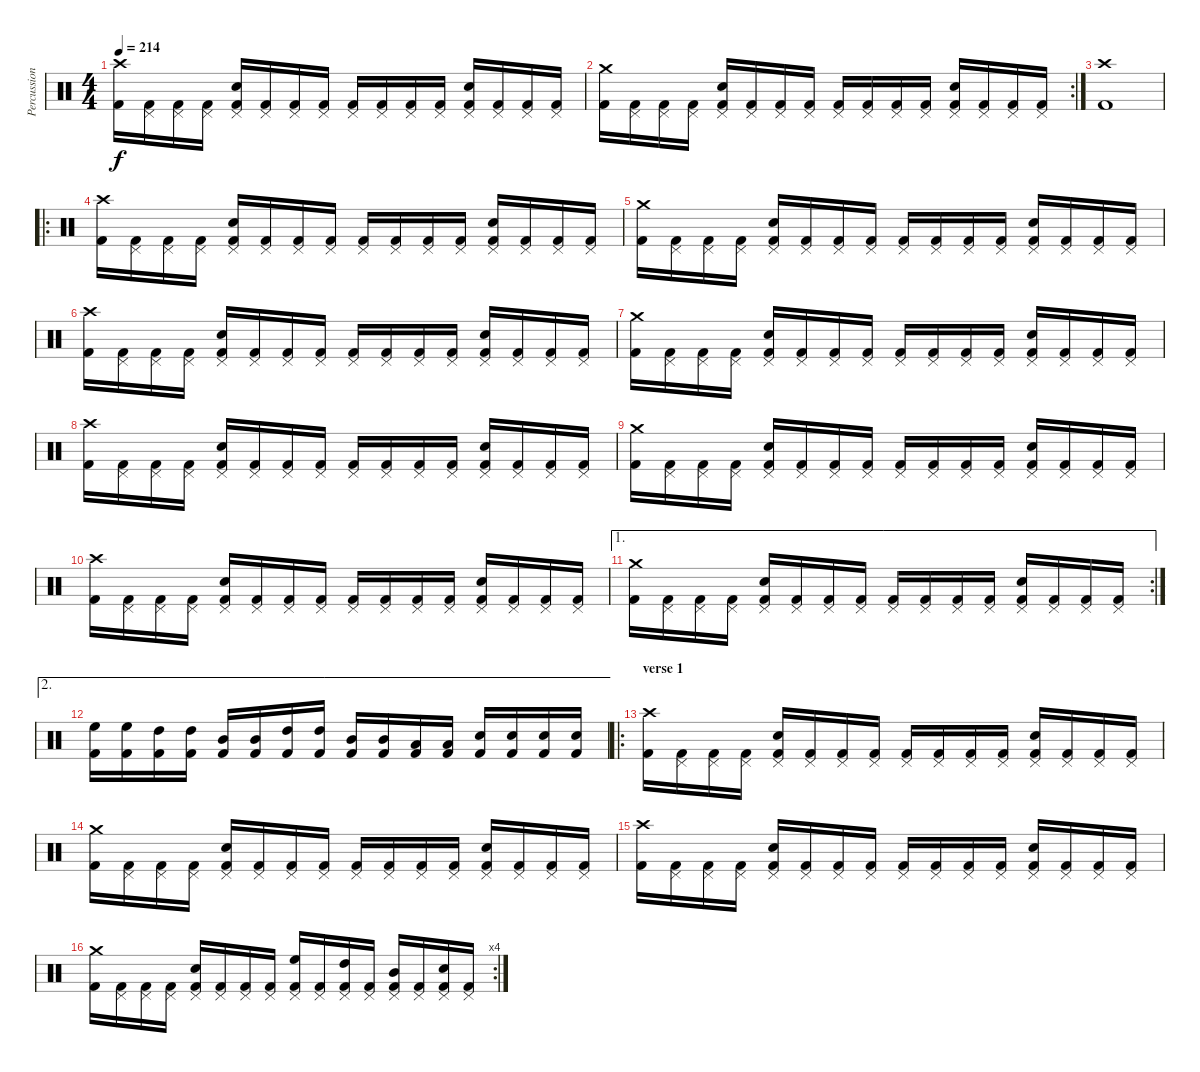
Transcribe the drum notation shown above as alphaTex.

\track ("Percussion" "Percussion") {instrument percussion}
\staff {score}
\articulation defaults
\ts (4 4)
\tempo 214
\clef neutral
\ks c
("Crash high (hit)" "Kick (hit) 2").16{dy f} ("Pedal Hi-Hat (hit)" "Kick (hit) 2").16 ("Pedal Hi-Hat (hit)" "Kick (hit) 2").16 ("Pedal Hi-Hat (hit)" "Kick (hit) 2").16 ("Pedal Hi-Hat (hit)" "Snare (hit) 2" "Kick (hit) 2").16 ("Pedal Hi-Hat (hit)" "Kick (hit) 2").16 ("Pedal Hi-Hat (hit)" "Kick (hit) 2").16 ("Pedal Hi-Hat (hit)" "Kick (hit) 2").16 ("Pedal Hi-Hat (hit)" "Kick (hit) 2").16 ("Pedal Hi-Hat (hit)" "Kick (hit) 2").16 ("Pedal Hi-Hat (hit)" "Kick (hit) 2").16 ("Pedal Hi-Hat (hit)" "Kick (hit) 2").16 ("Pedal Hi-Hat (hit)" "Snare (hit) 2" "Kick (hit) 2").16 ("Pedal Hi-Hat (hit)" "Kick (hit) 2").16 ("Pedal Hi-Hat (hit)" "Kick (hit) 2").16 ("Pedal Hi-Hat (hit)" "Kick (hit) 2").16 |
\rc 2
("Crash medium (hit)" "Kick (hit) 2").16 ("Pedal Hi-Hat (hit)" "Kick (hit) 2").16 ("Pedal Hi-Hat (hit)" "Kick (hit) 2").16 ("Pedal Hi-Hat (hit)" "Kick (hit) 2").16 ("Pedal Hi-Hat (hit)" "Snare (hit) 2" "Kick (hit) 2").16 ("Pedal Hi-Hat (hit)" "Kick (hit) 2").16 ("Pedal Hi-Hat (hit)" "Kick (hit) 2").16 ("Pedal Hi-Hat (hit)" "Kick (hit) 2").16 ("Pedal Hi-Hat (hit)" "Kick (hit) 2").16 ("Pedal Hi-Hat (hit)" "Kick (hit) 2").16 ("Pedal Hi-Hat (hit)" "Kick (hit) 2").16 ("Pedal Hi-Hat (hit)" "Kick (hit) 2").16 ("Pedal Hi-Hat (hit)" "Snare (hit) 2" "Kick (hit) 2").16 ("Pedal Hi-Hat (hit)" "Kick (hit) 2").16 ("Pedal Hi-Hat (hit)" "Kick (hit) 2").16 ("Pedal Hi-Hat (hit)" "Kick (hit) 2").16 |
("Crash high (hit)" "Kick (hit) 2").1 |
\ro
("Crash high (hit)" "Kick (hit) 2").16 ("Pedal Hi-Hat (hit)" "Kick (hit) 2").16 ("Pedal Hi-Hat (hit)" "Kick (hit) 2").16 ("Pedal Hi-Hat (hit)" "Kick (hit) 2").16 ("Pedal Hi-Hat (hit)" "Snare (hit) 2" "Kick (hit) 2").16 ("Pedal Hi-Hat (hit)" "Kick (hit) 2").16 ("Pedal Hi-Hat (hit)" "Kick (hit) 2").16 ("Pedal Hi-Hat (hit)" "Kick (hit) 2").16 ("Pedal Hi-Hat (hit)" "Kick (hit) 2").16 ("Pedal Hi-Hat (hit)" "Kick (hit) 2").16 ("Pedal Hi-Hat (hit)" "Kick (hit) 2").16 ("Pedal Hi-Hat (hit)" "Kick (hit) 2").16 ("Pedal Hi-Hat (hit)" "Snare (hit) 2" "Kick (hit) 2").16 ("Pedal Hi-Hat (hit)" "Kick (hit) 2").16 ("Pedal Hi-Hat (hit)" "Kick (hit) 2").16 ("Pedal Hi-Hat (hit)" "Kick (hit) 2").16 |
("Crash medium (hit)" "Kick (hit) 2").16 ("Pedal Hi-Hat (hit)" "Kick (hit) 2").16 ("Pedal Hi-Hat (hit)" "Kick (hit) 2").16 ("Pedal Hi-Hat (hit)" "Kick (hit) 2").16 ("Pedal Hi-Hat (hit)" "Snare (hit) 2" "Kick (hit) 2").16 ("Pedal Hi-Hat (hit)" "Kick (hit) 2").16 ("Pedal Hi-Hat (hit)" "Kick (hit) 2").16 ("Pedal Hi-Hat (hit)" "Kick (hit) 2").16 ("Pedal Hi-Hat (hit)" "Kick (hit) 2").16 ("Pedal Hi-Hat (hit)" "Kick (hit) 2").16 ("Pedal Hi-Hat (hit)" "Kick (hit) 2").16 ("Pedal Hi-Hat (hit)" "Kick (hit) 2").16 ("Pedal Hi-Hat (hit)" "Snare (hit) 2" "Kick (hit) 2").16 ("Pedal Hi-Hat (hit)" "Kick (hit) 2").16 ("Pedal Hi-Hat (hit)" "Kick (hit) 2").16 ("Pedal Hi-Hat (hit)" "Kick (hit) 2").16 |
("Crash high (hit)" "Kick (hit) 2").16 ("Pedal Hi-Hat (hit)" "Kick (hit) 2").16 ("Pedal Hi-Hat (hit)" "Kick (hit) 2").16 ("Pedal Hi-Hat (hit)" "Kick (hit) 2").16 ("Pedal Hi-Hat (hit)" "Snare (hit) 2" "Kick (hit) 2").16 ("Pedal Hi-Hat (hit)" "Kick (hit) 2").16 ("Pedal Hi-Hat (hit)" "Kick (hit) 2").16 ("Pedal Hi-Hat (hit)" "Kick (hit) 2").16 ("Pedal Hi-Hat (hit)" "Kick (hit) 2").16 ("Pedal Hi-Hat (hit)" "Kick (hit) 2").16 ("Pedal Hi-Hat (hit)" "Kick (hit) 2").16 ("Pedal Hi-Hat (hit)" "Kick (hit) 2").16 ("Pedal Hi-Hat (hit)" "Snare (hit) 2" "Kick (hit) 2").16 ("Pedal Hi-Hat (hit)" "Kick (hit) 2").16 ("Pedal Hi-Hat (hit)" "Kick (hit) 2").16 ("Pedal Hi-Hat (hit)" "Kick (hit) 2").16 |
("Crash medium (hit)" "Kick (hit) 2").16 ("Pedal Hi-Hat (hit)" "Kick (hit) 2").16 ("Pedal Hi-Hat (hit)" "Kick (hit) 2").16 ("Pedal Hi-Hat (hit)" "Kick (hit) 2").16 ("Pedal Hi-Hat (hit)" "Snare (hit) 2" "Kick (hit) 2").16 ("Pedal Hi-Hat (hit)" "Kick (hit) 2").16 ("Pedal Hi-Hat (hit)" "Kick (hit) 2").16 ("Pedal Hi-Hat (hit)" "Kick (hit) 2").16 ("Pedal Hi-Hat (hit)" "Kick (hit) 2").16 ("Pedal Hi-Hat (hit)" "Kick (hit) 2").16 ("Pedal Hi-Hat (hit)" "Kick (hit) 2").16 ("Pedal Hi-Hat (hit)" "Kick (hit) 2").16 ("Pedal Hi-Hat (hit)" "Snare (hit) 2" "Kick (hit) 2").16 ("Pedal Hi-Hat (hit)" "Kick (hit) 2").16 ("Pedal Hi-Hat (hit)" "Kick (hit) 2").16 ("Pedal Hi-Hat (hit)" "Kick (hit) 2").16 |
("Crash high (hit)" "Kick (hit) 2").16 ("Pedal Hi-Hat (hit)" "Kick (hit) 2").16 ("Pedal Hi-Hat (hit)" "Kick (hit) 2").16 ("Pedal Hi-Hat (hit)" "Kick (hit) 2").16 ("Pedal Hi-Hat (hit)" "Snare (hit) 2" "Kick (hit) 2").16 ("Pedal Hi-Hat (hit)" "Kick (hit) 2").16 ("Pedal Hi-Hat (hit)" "Kick (hit) 2").16 ("Pedal Hi-Hat (hit)" "Kick (hit) 2").16 ("Pedal Hi-Hat (hit)" "Kick (hit) 2").16 ("Pedal Hi-Hat (hit)" "Kick (hit) 2").16 ("Pedal Hi-Hat (hit)" "Kick (hit) 2").16 ("Pedal Hi-Hat (hit)" "Kick (hit) 2").16 ("Pedal Hi-Hat (hit)" "Snare (hit) 2" "Kick (hit) 2").16 ("Pedal Hi-Hat (hit)" "Kick (hit) 2").16 ("Pedal Hi-Hat (hit)" "Kick (hit) 2").16 ("Pedal Hi-Hat (hit)" "Kick (hit) 2").16 |
("Crash medium (hit)" "Kick (hit) 2").16 ("Pedal Hi-Hat (hit)" "Kick (hit) 2").16 ("Pedal Hi-Hat (hit)" "Kick (hit) 2").16 ("Pedal Hi-Hat (hit)" "Kick (hit) 2").16 ("Pedal Hi-Hat (hit)" "Snare (hit) 2" "Kick (hit) 2").16 ("Pedal Hi-Hat (hit)" "Kick (hit) 2").16 ("Pedal Hi-Hat (hit)" "Kick (hit) 2").16 ("Pedal Hi-Hat (hit)" "Kick (hit) 2").16 ("Pedal Hi-Hat (hit)" "Kick (hit) 2").16 ("Pedal Hi-Hat (hit)" "Kick (hit) 2").16 ("Pedal Hi-Hat (hit)" "Kick (hit) 2").16 ("Pedal Hi-Hat (hit)" "Kick (hit) 2").16 ("Pedal Hi-Hat (hit)" "Snare (hit) 2" "Kick (hit) 2").16 ("Pedal Hi-Hat (hit)" "Kick (hit) 2").16 ("Pedal Hi-Hat (hit)" "Kick (hit) 2").16 ("Pedal Hi-Hat (hit)" "Kick (hit) 2").16 |
("Crash high (hit)" "Kick (hit) 2").16 ("Pedal Hi-Hat (hit)" "Kick (hit) 2").16 ("Pedal Hi-Hat (hit)" "Kick (hit) 2").16 ("Pedal Hi-Hat (hit)" "Kick (hit) 2").16 ("Pedal Hi-Hat (hit)" "Snare (hit) 2" "Kick (hit) 2").16 ("Pedal Hi-Hat (hit)" "Kick (hit) 2").16 ("Pedal Hi-Hat (hit)" "Kick (hit) 2").16 ("Pedal Hi-Hat (hit)" "Kick (hit) 2").16 ("Pedal Hi-Hat (hit)" "Kick (hit) 2").16 ("Pedal Hi-Hat (hit)" "Kick (hit) 2").16 ("Pedal Hi-Hat (hit)" "Kick (hit) 2").16 ("Pedal Hi-Hat (hit)" "Kick (hit) 2").16 ("Pedal Hi-Hat (hit)" "Snare (hit) 2" "Kick (hit) 2").16 ("Pedal Hi-Hat (hit)" "Kick (hit) 2").16 ("Pedal Hi-Hat (hit)" "Kick (hit) 2").16 ("Pedal Hi-Hat (hit)" "Kick (hit) 2").16 |
\ae 1
\rc 2
("Crash medium (hit)" "Kick (hit) 2").16 ("Pedal Hi-Hat (hit)" "Kick (hit) 2").16 ("Pedal Hi-Hat (hit)" "Kick (hit) 2").16 ("Pedal Hi-Hat (hit)" "Kick (hit) 2").16 ("Pedal Hi-Hat (hit)" "Snare (hit) 2" "Kick (hit) 2").16 ("Pedal Hi-Hat (hit)" "Kick (hit) 2").16 ("Pedal Hi-Hat (hit)" "Kick (hit) 2").16 ("Pedal Hi-Hat (hit)" "Kick (hit) 2").16 ("Pedal Hi-Hat (hit)" "Kick (hit) 2").16 ("Pedal Hi-Hat (hit)" "Kick (hit) 2").16 ("Pedal Hi-Hat (hit)" "Kick (hit) 2").16 ("Pedal Hi-Hat (hit)" "Kick (hit) 2").16 ("Pedal Hi-Hat (hit)" "Snare (hit) 2" "Kick (hit) 2").16 ("Pedal Hi-Hat (hit)" "Kick (hit) 2").16 ("Pedal Hi-Hat (hit)" "Kick (hit) 2").16 ("Pedal Hi-Hat (hit)" "Kick (hit) 2").16 |
\ae 2
("High Floor Tom (hit)" "Kick (hit) 2").16 ("High Floor Tom (hit)" "Kick (hit) 2").16 ("High Tom (hit)" "Kick (hit) 2").16 ("High Tom (hit)" "Kick (hit) 2").16 ("Mid Tom (hit)" "Kick (hit) 2").16 ("Mid Tom (hit)" "Kick (hit) 2").16 ("High Tom (hit)" "Kick (hit) 2").16 ("High Tom (hit)" "Kick (hit) 2").16 ("Mid Tom (hit)" "Kick (hit) 2").16 ("Mid Tom (hit)" "Kick (hit) 2").16 ("Low Tom (hit)" "Kick (hit) 2").16 ("Low Tom (hit)" "Kick (hit) 2").16 ("Snare (hit) 2" "Kick (hit) 2").16 ("Snare (hit) 2" "Kick (hit) 2").16 ("Snare (hit) 2" "Kick (hit) 2").16 ("Snare (hit) 2" "Kick (hit) 2").16 |
\ro
\section ("" "verse 1")
("Crash high (hit)" "Kick (hit) 2").16 ("Pedal Hi-Hat (hit)" "Kick (hit) 2").16 ("Pedal Hi-Hat (hit)" "Kick (hit) 2").16 ("Pedal Hi-Hat (hit)" "Kick (hit) 2").16 ("Pedal Hi-Hat (hit)" "Snare (hit) 2" "Kick (hit) 2").16 ("Pedal Hi-Hat (hit)" "Kick (hit) 2").16 ("Pedal Hi-Hat (hit)" "Kick (hit) 2").16 ("Pedal Hi-Hat (hit)" "Kick (hit) 2").16 ("Pedal Hi-Hat (hit)" "Kick (hit) 2").16 ("Pedal Hi-Hat (hit)" "Kick (hit) 2").16 ("Pedal Hi-Hat (hit)" "Kick (hit) 2").16 ("Pedal Hi-Hat (hit)" "Kick (hit) 2").16 ("Pedal Hi-Hat (hit)" "Snare (hit) 2" "Kick (hit) 2").16 ("Pedal Hi-Hat (hit)" "Kick (hit) 2").16 ("Pedal Hi-Hat (hit)" "Kick (hit) 2").16 ("Pedal Hi-Hat (hit)" "Kick (hit) 2").16 |
("Crash medium (hit)" "Kick (hit) 2").16 ("Pedal Hi-Hat (hit)" "Kick (hit) 2").16 ("Pedal Hi-Hat (hit)" "Kick (hit) 2").16 ("Pedal Hi-Hat (hit)" "Kick (hit) 2").16 ("Pedal Hi-Hat (hit)" "Snare (hit) 2" "Kick (hit) 2").16 ("Pedal Hi-Hat (hit)" "Kick (hit) 2").16 ("Pedal Hi-Hat (hit)" "Kick (hit) 2").16 ("Pedal Hi-Hat (hit)" "Kick (hit) 2").16 ("Pedal Hi-Hat (hit)" "Kick (hit) 2").16 ("Pedal Hi-Hat (hit)" "Kick (hit) 2").16 ("Pedal Hi-Hat (hit)" "Kick (hit) 2").16 ("Pedal Hi-Hat (hit)" "Kick (hit) 2").16 ("Pedal Hi-Hat (hit)" "Snare (hit) 2" "Kick (hit) 2").16 ("Pedal Hi-Hat (hit)" "Kick (hit) 2").16 ("Pedal Hi-Hat (hit)" "Kick (hit) 2").16 ("Pedal Hi-Hat (hit)" "Kick (hit) 2").16 |
("Crash high (hit)" "Kick (hit) 2").16 ("Pedal Hi-Hat (hit)" "Kick (hit) 2").16 ("Pedal Hi-Hat (hit)" "Kick (hit) 2").16 ("Pedal Hi-Hat (hit)" "Kick (hit) 2").16 ("Pedal Hi-Hat (hit)" "Snare (hit) 2" "Kick (hit) 2").16 ("Pedal Hi-Hat (hit)" "Kick (hit) 2").16 ("Pedal Hi-Hat (hit)" "Kick (hit) 2").16 ("Pedal Hi-Hat (hit)" "Kick (hit) 2").16 ("Pedal Hi-Hat (hit)" "Kick (hit) 2").16 ("Pedal Hi-Hat (hit)" "Kick (hit) 2").16 ("Pedal Hi-Hat (hit)" "Kick (hit) 2").16 ("Pedal Hi-Hat (hit)" "Kick (hit) 2").16 ("Pedal Hi-Hat (hit)" "Snare (hit) 2" "Kick (hit) 2").16 ("Pedal Hi-Hat (hit)" "Kick (hit) 2").16 ("Pedal Hi-Hat (hit)" "Kick (hit) 2").16 ("Pedal Hi-Hat (hit)" "Kick (hit) 2").16 |
\rc 4
("Crash medium (hit)" "Kick (hit) 2").16 ("Pedal Hi-Hat (hit)" "Kick (hit) 2").16 ("Pedal Hi-Hat (hit)" "Kick (hit) 2").16 ("Pedal Hi-Hat (hit)" "Kick (hit) 2").16 ("Pedal Hi-Hat (hit)" "Snare (hit) 2" "Kick (hit) 2").16 ("Pedal Hi-Hat (hit)" "Kick (hit) 2").16 ("Pedal Hi-Hat (hit)" "Kick (hit) 2").16 ("Pedal Hi-Hat (hit)" "Kick (hit) 2").16 ("Pedal Hi-Hat (hit)" "High Floor Tom (hit)" "Kick (hit) 2").16 ("Pedal Hi-Hat (hit)" "Kick (hit) 2").16 ("Pedal Hi-Hat (hit)" "High Tom (hit)" "Kick (hit) 2").16 ("Pedal Hi-Hat (hit)" "Kick (hit) 2").16 ("Pedal Hi-Hat (hit)" "Mid Tom (hit)" "Kick (hit) 2").16 ("Pedal Hi-Hat (hit)" "Kick (hit) 2").16 ("Pedal Hi-Hat (hit)" "Snare (hit) 2" "Kick (hit) 2").16 ("Pedal Hi-Hat (hit)" "Kick (hit) 2").16
